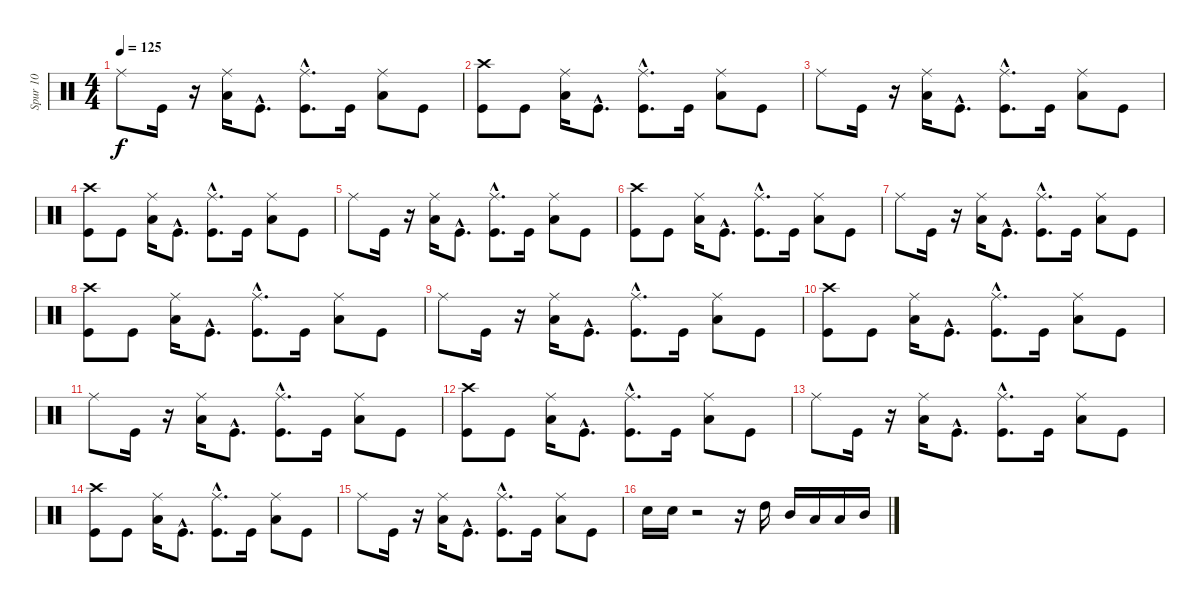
\track ("Spur 10" "Spur 10") {instrument percussion}
\staff {score}
\articulation defaults
\ts (4 4)
\tempo 125
\clef neutral
\ks c "Ride (middle)".8{dy f} "Kick (hit)".16
r.16 ("Low Tom (hit)" "Ride (middle)").16 "Kick (hit)"{hac}.8{d} ("Kick (hit)"{hac} "Ride (middle)").8{d} "Kick (hit)".16 ("Ride (middle)" "Low Tom (hit)").8 "Kick (hit)".8 |
("Crash high (hit)" "Kick (hit)").8 "Kick (hit)".8 ("Low Tom (hit)" "Ride (middle)").16 "Kick (hit)"{hac}.8{d} ("Kick (hit)"{hac} "Ride (middle)").8{d} "Kick (hit)".16 ("Low Tom (hit)" "Ride (middle)").8 "Kick (hit)".8 |
"Ride (middle)".8 "Kick (hit)".16 r.16 ("Ride (middle)" "Low Tom (hit)").16 "Kick (hit)"{hac}.8{d} ("Kick (hit)"{hac} "Ride (middle)").8{d} "Kick (hit)".16 ("Low Tom (hit)" "Ride (middle)").8 "Kick (hit)".8 |
("Kick (hit)" "Crash high (hit)").8 "Kick (hit)".8 ("Low Tom (hit)" "Ride (middle)").16 "Kick (hit)"{hac}.8{d} ("Kick (hit)"{hac} "Ride (middle)").8{d} "Kick (hit)".16 ("Ride (middle)" "Low Tom (hit)").8 "Kick (hit)".8 |
"Ride (middle)".8 "Kick (hit)".16 r.16 ("Ride (middle)" "Low Tom (hit)").16 "Kick (hit)"{hac}.8{d} ("Ride (middle)" "Kick (hit)"{hac}).8{d} "Kick (hit)".16 ("Ride (middle)" "Low Tom (hit)").8 "Kick (hit)".8 |
("Kick (hit)" "Crash high (hit)").8 "Kick (hit)".8 ("Ride (middle)" "Low Tom (hit)").16 "Kick (hit)"{hac}.8{d} ("Kick (hit)"{hac} "Ride (middle)").8{d} "Kick (hit)".16 ("Ride (middle)" "Low Tom (hit)").8 "Kick (hit)".8 |
"Ride (middle)".8 "Kick (hit)".16 r.16 ("Low Tom (hit)" "Ride (middle)").16 "Kick (hit)"{hac}.8{d} ("Kick (hit)"{hac} "Ride (middle)").8{d} "Kick (hit)".16 ("Ride (middle)" "Low Tom (hit)").8 "Kick (hit)".8 |
("Kick (hit)" "Crash high (hit)").8 "Kick (hit)".8 ("Ride (middle)" "Low Tom (hit)").16 "Kick (hit)"{hac}.8{d} ("Kick (hit)"{hac} "Ride (middle)").8{d} "Kick (hit)".16 ("Low Tom (hit)" "Ride (middle)").8 "Kick (hit)".8 |
"Ride (middle)".8 "Kick (hit)".16 r.16 ("Ride (middle)" "Low Tom (hit)").16 "Kick (hit)"{hac}.8{d} ("Ride (middle)" "Kick (hit)"{hac}).8{d} "Kick (hit)".16 ("Ride (middle)" "Low Tom (hit)").8 "Kick (hit)".8 |
("Kick (hit)" "Crash high (hit)").8 "Kick (hit)".8 ("Low Tom (hit)" "Ride (middle)").16 "Kick (hit)"{hac}.8{d} ("Ride (middle)" "Kick (hit)"{hac}).8{d} "Kick (hit)".16 ("Ride (middle)" "Low Tom (hit)").8 "Kick (hit)".8 |
"Ride (middle)".8 "Kick (hit)".16 r.16 ("Ride (middle)" "Low Tom (hit)").16 "Kick (hit)"{hac}.8{d} ("Kick (hit)"{hac} "Ride (middle)").8{d} "Kick (hit)".16 ("Low Tom (hit)" "Ride (middle)").8 "Kick (hit)".8 |
("Crash high (hit)" "Kick (hit)").8 "Kick (hit)".8 ("Ride (middle)" "Low Tom (hit)").16 "Kick (hit)"{hac}.8{d} ("Kick (hit)"{hac} "Ride (middle)").8{d} "Kick (hit)".16 ("Low Tom (hit)" "Ride (middle)").8 "Kick (hit)".8 |
"Ride (middle)".8 "Kick (hit)".16 r.16 ("Low Tom (hit)" "Ride (middle)").16 "Kick (hit)"{hac}.8{d} ("Ride (middle)" "Kick (hit)"{hac}).8{d} "Kick (hit)".16 ("Low Tom (hit)" "Ride (middle)").8 "Kick (hit)".8 |
("Crash high (hit)" "Kick (hit)").8 "Kick (hit)".8 ("Ride (middle)" "Low Tom (hit)").16 "Kick (hit)"{hac}.8{d} ("Ride (middle)" "Kick (hit)"{hac}).8{d} "Kick (hit)".16 ("Ride (middle)" "Low Tom (hit)").8 "Kick (hit)".8 |
"Ride (middle)".8 "Kick (hit)".16 r.16 ("Low Tom (hit)" "Ride (middle)").16 "Kick (hit)"{hac}.8{d} ("Kick (hit)"{hac} "Ride (middle)").8{d} "Kick (hit)".16 ("Ride (middle)" "Low Tom (hit)").8 "Kick (hit)".8 |
"Electric Snare (hit)".16 "Electric Snare (hit)".16 r.2 r.16 "High Tom (hit)".16 "Mid Tom (hit)".16 "Low Tom (hit)".16 "Low Tom (hit)".16 "Mid Tom (hit)".16
